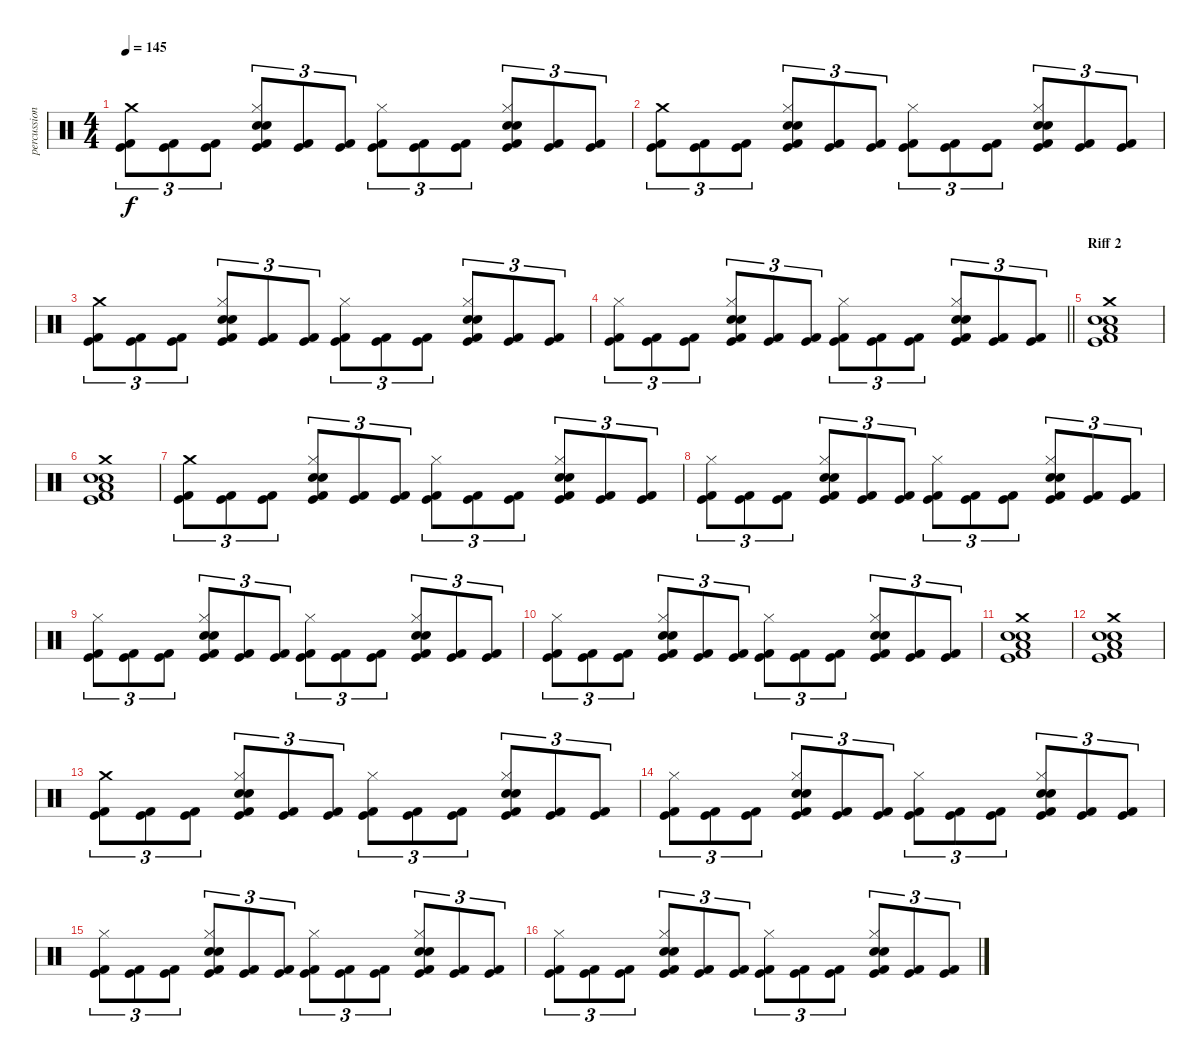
\track ("percussion" "percussion") {instrument percussion}
\staff {score}
\articulation defaults
\ts (4 4)
\tempo 145
\clef neutral
\ks c
("Crash medium (hit)" "Kick (hit)" "Kick (hit) 2").8{tu (3 2) dy f} ("Kick (hit)" "Kick (hit) 2").8{tu (3 2)} ("Kick (hit)" "Kick (hit) 2").8{tu (3 2)} ("Hi-Hat (closed)" "Electric Snare (hit)" "Snare (hit) 2" "Kick (hit)" "Kick (hit) 2").8{tu (3 2)} ("Kick (hit)" "Kick (hit) 2").8{tu (3 2)} ("Kick (hit)" "Kick (hit) 2").8{tu (3 2)} ("Hi-Hat (closed)" "Kick (hit)" "Kick (hit) 2").8{tu (3 2)} ("Kick (hit)" "Kick (hit) 2").8{tu (3 2)} ("Kick (hit)" "Kick (hit) 2").8{tu (3 2)} ("Hi-Hat (closed)" "Electric Snare (hit)" "Snare (hit) 2" "Kick (hit)" "Kick (hit) 2").8{tu (3 2)} ("Kick (hit)" "Kick (hit) 2").8{tu (3 2)} ("Kick (hit)" "Kick (hit) 2").8{tu (3 2)} |
("Crash medium (hit)" "Kick (hit)" "Kick (hit) 2").8{tu (3 2)} ("Kick (hit)" "Kick (hit) 2").8{tu (3 2)} ("Kick (hit)" "Kick (hit) 2").8{tu (3 2)} ("Hi-Hat (closed)" "Electric Snare (hit)" "Snare (hit) 2" "Kick (hit)" "Kick (hit) 2").8{tu (3 2)} ("Kick (hit)" "Kick (hit) 2").8{tu (3 2)} ("Kick (hit)" "Kick (hit) 2").8{tu (3 2)} ("Hi-Hat (closed)" "Kick (hit)" "Kick (hit) 2").8{tu (3 2)} ("Kick (hit)" "Kick (hit) 2").8{tu (3 2)} ("Kick (hit)" "Kick (hit) 2").8{tu (3 2)} ("Hi-Hat (closed)" "Electric Snare (hit)" "Snare (hit) 2" "Kick (hit)" "Kick (hit) 2").8{tu (3 2)} ("Kick (hit)" "Kick (hit) 2").8{tu (3 2)} ("Kick (hit)" "Kick (hit) 2").8{tu (3 2)} |
("Crash medium (hit)" "Kick (hit)" "Kick (hit) 2").8{tu (3 2)} ("Kick (hit)" "Kick (hit) 2").8{tu (3 2)} ("Kick (hit)" "Kick (hit) 2").8{tu (3 2)} ("Hi-Hat (closed)" "Electric Snare (hit)" "Snare (hit) 2" "Kick (hit)" "Kick (hit) 2").8{tu (3 2)} ("Kick (hit)" "Kick (hit) 2").8{tu (3 2)} ("Kick (hit)" "Kick (hit) 2").8{tu (3 2)} ("Hi-Hat (closed)" "Kick (hit)" "Kick (hit) 2").8{tu (3 2)} ("Kick (hit)" "Kick (hit) 2").8{tu (3 2)} ("Kick (hit)" "Kick (hit) 2").8{tu (3 2)} ("Hi-Hat (closed)" "Electric Snare (hit)" "Snare (hit) 2" "Kick (hit)" "Kick (hit) 2").8{tu (3 2)} ("Kick (hit)" "Kick (hit) 2").8{tu (3 2)} ("Kick (hit)" "Kick (hit) 2").8{tu (3 2)} |
\barLineRight lightlight
("Hi-Hat (closed)" "Kick (hit)" "Kick (hit) 2").8{tu (3 2)} ("Kick (hit)" "Kick (hit) 2").8{tu (3 2)} ("Kick (hit)" "Kick (hit) 2").8{tu (3 2)} ("Hi-Hat (closed)" "Electric Snare (hit)" "Snare (hit) 2" "Kick (hit)" "Kick (hit) 2").8{tu (3 2)} ("Kick (hit)" "Kick (hit) 2").8{tu (3 2)} ("Kick (hit)" "Kick (hit) 2").8{tu (3 2)} ("Hi-Hat (closed)" "Kick (hit)" "Kick (hit) 2").8{tu (3 2)} ("Kick (hit)" "Kick (hit) 2").8{tu (3 2)} ("Kick (hit)" "Kick (hit) 2").8{tu (3 2)} ("Hi-Hat (closed)" "Electric Snare (hit)" "Snare (hit) 2" "Kick (hit)" "Kick (hit) 2").8{tu (3 2)} ("Kick (hit)" "Kick (hit) 2").8{tu (3 2)} ("Kick (hit)" "Kick (hit) 2").8{tu (3 2)} |
\section ("" "Riff 2")
("Crash medium (hit)" "Electric Snare (hit)" "Snare (hit) 2" "Low Tom (hit)" "Kick (hit) 2" "Kick (hit)").1 |
("Crash medium (hit)" "Electric Snare (hit)" "Snare (hit) 2" "Low Tom (hit)" "Kick (hit) 2" "Kick (hit)").1 |
("Crash medium (hit)" "Kick (hit)" "Kick (hit) 2").8{tu (3 2)} ("Kick (hit)" "Kick (hit) 2").8{tu (3 2)} ("Kick (hit)" "Kick (hit) 2").8{tu (3 2)} ("Hi-Hat (closed)" "Electric Snare (hit)" "Snare (hit) 2" "Kick (hit)" "Kick (hit) 2").8{tu (3 2)} ("Kick (hit)" "Kick (hit) 2").8{tu (3 2)} ("Kick (hit)" "Kick (hit) 2").8{tu (3 2)} ("Hi-Hat (closed)" "Kick (hit)" "Kick (hit) 2").8{tu (3 2)} ("Kick (hit)" "Kick (hit) 2").8{tu (3 2)} ("Kick (hit)" "Kick (hit) 2").8{tu (3 2)} ("Hi-Hat (closed)" "Electric Snare (hit)" "Snare (hit) 2" "Kick (hit)" "Kick (hit) 2").8{tu (3 2)} ("Kick (hit)" "Kick (hit) 2").8{tu (3 2)} ("Kick (hit)" "Kick (hit) 2").8{tu (3 2)} |
("Hi-Hat (closed)" "Kick (hit)" "Kick (hit) 2").8{tu (3 2)} ("Kick (hit)" "Kick (hit) 2").8{tu (3 2)} ("Kick (hit)" "Kick (hit) 2").8{tu (3 2)} ("Hi-Hat (closed)" "Electric Snare (hit)" "Snare (hit) 2" "Kick (hit)" "Kick (hit) 2").8{tu (3 2)} ("Kick (hit)" "Kick (hit) 2").8{tu (3 2)} ("Kick (hit)" "Kick (hit) 2").8{tu (3 2)} ("Hi-Hat (closed)" "Kick (hit)" "Kick (hit) 2").8{tu (3 2)} ("Kick (hit)" "Kick (hit) 2").8{tu (3 2)} ("Kick (hit)" "Kick (hit) 2").8{tu (3 2)} ("Hi-Hat (closed)" "Electric Snare (hit)" "Snare (hit) 2" "Kick (hit)" "Kick (hit) 2").8{tu (3 2)} ("Kick (hit)" "Kick (hit) 2").8{tu (3 2)} ("Kick (hit)" "Kick (hit) 2").8{tu (3 2)} |
("Hi-Hat (closed)" "Kick (hit)" "Kick (hit) 2").8{tu (3 2)} ("Kick (hit)" "Kick (hit) 2").8{tu (3 2)} ("Kick (hit)" "Kick (hit) 2").8{tu (3 2)} ("Hi-Hat (closed)" "Electric Snare (hit)" "Snare (hit) 2" "Kick (hit)" "Kick (hit) 2").8{tu (3 2)} ("Kick (hit)" "Kick (hit) 2").8{tu (3 2)} ("Kick (hit)" "Kick (hit) 2").8{tu (3 2)} ("Hi-Hat (closed)" "Kick (hit)" "Kick (hit) 2").8{tu (3 2)} ("Kick (hit)" "Kick (hit) 2").8{tu (3 2)} ("Kick (hit)" "Kick (hit) 2").8{tu (3 2)} ("Hi-Hat (closed)" "Electric Snare (hit)" "Snare (hit) 2" "Kick (hit)" "Kick (hit) 2").8{tu (3 2)} ("Kick (hit)" "Kick (hit) 2").8{tu (3 2)} ("Kick (hit)" "Kick (hit) 2").8{tu (3 2)} |
("Hi-Hat (closed)" "Kick (hit)" "Kick (hit) 2").8{tu (3 2)} ("Kick (hit)" "Kick (hit) 2").8{tu (3 2)} ("Kick (hit)" "Kick (hit) 2").8{tu (3 2)} ("Hi-Hat (closed)" "Electric Snare (hit)" "Snare (hit) 2" "Kick (hit)" "Kick (hit) 2").8{tu (3 2)} ("Kick (hit)" "Kick (hit) 2").8{tu (3 2)} ("Kick (hit)" "Kick (hit) 2").8{tu (3 2)} ("Hi-Hat (closed)" "Kick (hit)" "Kick (hit) 2").8{tu (3 2)} ("Kick (hit)" "Kick (hit) 2").8{tu (3 2)} ("Kick (hit)" "Kick (hit) 2").8{tu (3 2)} ("Hi-Hat (closed)" "Electric Snare (hit)" "Snare (hit) 2" "Kick (hit)" "Kick (hit) 2").8{tu (3 2)} ("Kick (hit)" "Kick (hit) 2").8{tu (3 2)} ("Kick (hit)" "Kick (hit) 2").8{tu (3 2)} |
("Crash medium (hit)" "Electric Snare (hit)" "Snare (hit) 2" "Low Tom (hit)" "Kick (hit) 2" "Kick (hit)").1 |
("Crash medium (hit)" "Electric Snare (hit)" "Snare (hit) 2" "Low Tom (hit)" "Kick (hit) 2" "Kick (hit)").1 |
("Crash medium (hit)" "Kick (hit)" "Kick (hit) 2").8{tu (3 2)} ("Kick (hit)" "Kick (hit) 2").8{tu (3 2)} ("Kick (hit)" "Kick (hit) 2").8{tu (3 2)} ("Hi-Hat (closed)" "Electric Snare (hit)" "Snare (hit) 2" "Kick (hit)" "Kick (hit) 2").8{tu (3 2)} ("Kick (hit)" "Kick (hit) 2").8{tu (3 2)} ("Kick (hit)" "Kick (hit) 2").8{tu (3 2)} ("Hi-Hat (closed)" "Kick (hit)" "Kick (hit) 2").8{tu (3 2)} ("Kick (hit)" "Kick (hit) 2").8{tu (3 2)} ("Kick (hit)" "Kick (hit) 2").8{tu (3 2)} ("Hi-Hat (closed)" "Electric Snare (hit)" "Snare (hit) 2" "Kick (hit)" "Kick (hit) 2").8{tu (3 2)} ("Kick (hit)" "Kick (hit) 2").8{tu (3 2)} ("Kick (hit)" "Kick (hit) 2").8{tu (3 2)} |
("Hi-Hat (closed)" "Kick (hit)" "Kick (hit) 2").8{tu (3 2)} ("Kick (hit)" "Kick (hit) 2").8{tu (3 2)} ("Kick (hit)" "Kick (hit) 2").8{tu (3 2)} ("Hi-Hat (closed)" "Electric Snare (hit)" "Snare (hit) 2" "Kick (hit)" "Kick (hit) 2").8{tu (3 2)} ("Kick (hit)" "Kick (hit) 2").8{tu (3 2)} ("Kick (hit)" "Kick (hit) 2").8{tu (3 2)} ("Hi-Hat (closed)" "Kick (hit)" "Kick (hit) 2").8{tu (3 2)} ("Kick (hit)" "Kick (hit) 2").8{tu (3 2)} ("Kick (hit)" "Kick (hit) 2").8{tu (3 2)} ("Hi-Hat (closed)" "Electric Snare (hit)" "Snare (hit) 2" "Kick (hit)" "Kick (hit) 2").8{tu (3 2)} ("Kick (hit)" "Kick (hit) 2").8{tu (3 2)} ("Kick (hit)" "Kick (hit) 2").8{tu (3 2)} |
("Hi-Hat (closed)" "Kick (hit)" "Kick (hit) 2").8{tu (3 2)} ("Kick (hit)" "Kick (hit) 2").8{tu (3 2)} ("Kick (hit)" "Kick (hit) 2").8{tu (3 2)} ("Hi-Hat (closed)" "Electric Snare (hit)" "Snare (hit) 2" "Kick (hit)" "Kick (hit) 2").8{tu (3 2)} ("Kick (hit)" "Kick (hit) 2").8{tu (3 2)} ("Kick (hit)" "Kick (hit) 2").8{tu (3 2)} ("Hi-Hat (closed)" "Kick (hit)" "Kick (hit) 2").8{tu (3 2)} ("Kick (hit)" "Kick (hit) 2").8{tu (3 2)} ("Kick (hit)" "Kick (hit) 2").8{tu (3 2)} ("Hi-Hat (closed)" "Electric Snare (hit)" "Snare (hit) 2" "Kick (hit)" "Kick (hit) 2").8{tu (3 2)} ("Kick (hit)" "Kick (hit) 2").8{tu (3 2)} ("Kick (hit)" "Kick (hit) 2").8{tu (3 2)} |
("Hi-Hat (closed)" "Kick (hit)" "Kick (hit) 2").8{tu (3 2)} ("Kick (hit)" "Kick (hit) 2").8{tu (3 2)} ("Kick (hit)" "Kick (hit) 2").8{tu (3 2)} ("Hi-Hat (closed)" "Electric Snare (hit)" "Snare (hit) 2" "Kick (hit)" "Kick (hit) 2").8{tu (3 2)} ("Kick (hit)" "Kick (hit) 2").8{tu (3 2)} ("Kick (hit)" "Kick (hit) 2").8{tu (3 2)} ("Hi-Hat (closed)" "Kick (hit)" "Kick (hit) 2").8{tu (3 2)} ("Kick (hit)" "Kick (hit) 2").8{tu (3 2)} ("Kick (hit)" "Kick (hit) 2").8{tu (3 2)} ("Hi-Hat (closed)" "Electric Snare (hit)" "Snare (hit) 2" "Kick (hit)" "Kick (hit) 2").8{tu (3 2)} ("Kick (hit)" "Kick (hit) 2").8{tu (3 2)} ("Kick (hit)" "Kick (hit) 2").8{tu (3 2)}
